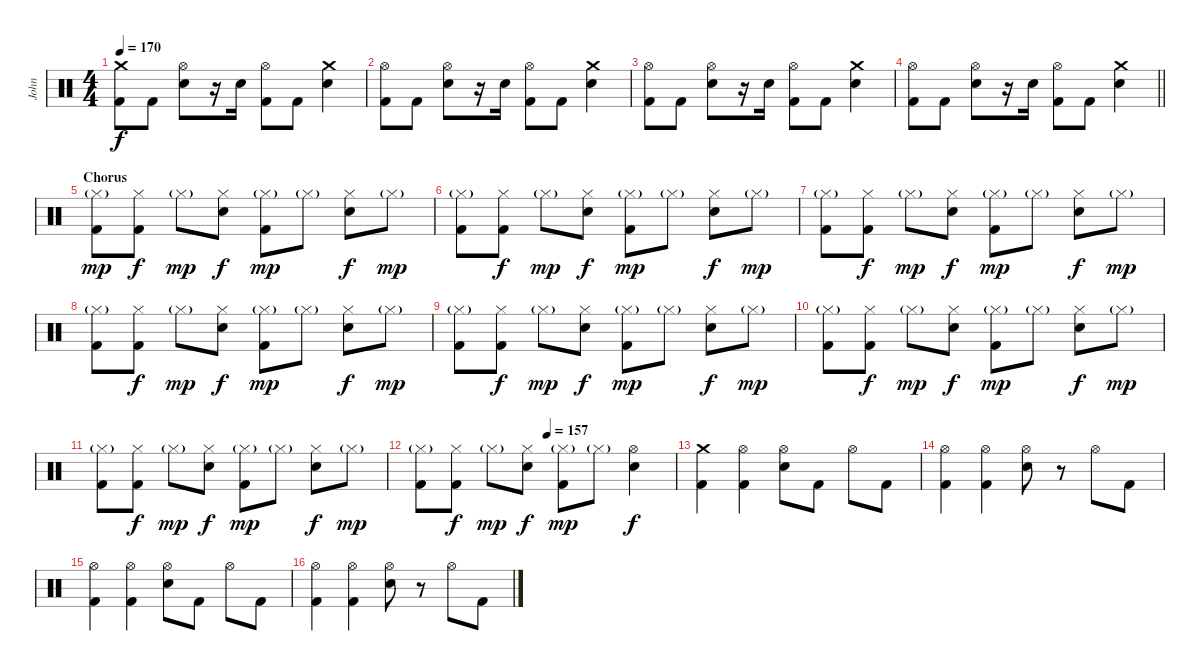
\track ("John" "John") {instrument percussion}
\staff {score}
\articulation defaults
\ts (4 4)
\tempo 170
\clef neutral
\ks c
("Crash medium (hit)" "Kick (hit) 2").8{dy f} "Kick (hit) 2".8 ("Hi-Hat (open)" "Electric Snare (hit)").8 r.16 "Electric Snare (hit)".16 ("Hi-Hat (open)" "Kick (hit) 2").8 "Kick (hit) 2".8 ("Crash medium (hit)" "Electric Snare (hit)").4 |
("Hi-Hat (open)" "Kick (hit) 2").8 "Kick (hit) 2".8 ("Hi-Hat (open)" "Electric Snare (hit)").8 r.16 "Electric Snare (hit)".16 ("Hi-Hat (open)" "Kick (hit) 2").8 "Kick (hit) 2".8 ("Crash medium (hit)" "Electric Snare (hit)").4 |
("Hi-Hat (open)" "Kick (hit) 2").8 "Kick (hit) 2".8 ("Hi-Hat (open)" "Electric Snare (hit)").8 r.16 "Electric Snare (hit)".16 ("Hi-Hat (open)" "Kick (hit) 2").8 "Kick (hit) 2".8 ("Crash medium (hit)" "Electric Snare (hit)").4 |
\barLineRight lightlight
("Hi-Hat (open)" "Kick (hit) 2").8 "Kick (hit) 2".8 ("Hi-Hat (open)" "Electric Snare (hit)").8 r.16 "Electric Snare (hit)".16 ("Hi-Hat (open)" "Kick (hit) 2").8 "Kick (hit) 2".8 ("Crash medium (hit)" "Electric Snare (hit)").4 |
\section ("" "Chorus")
("Hi-Hat (closed)"{g} "Kick (hit) 2").8{dy mp} ("Hi-Hat (closed)" "Kick (hit) 2").8{dy f} "Hi-Hat (closed)"{g}.8{dy mp} ("Hi-Hat (closed)" "Electric Snare (hit)").8{dy f} ("Hi-Hat (closed)"{g} "Kick (hit) 2").8{dy mp} "Hi-Hat (closed)"{g}.8 ("Hi-Hat (closed)" "Electric Snare (hit)").8{dy f} "Hi-Hat (closed)"{g}.8{dy mp} |
("Hi-Hat (closed)"{g} "Kick (hit) 2").8 ("Hi-Hat (closed)" "Kick (hit) 2").8{dy f} "Hi-Hat (closed)"{g}.8{dy mp} ("Hi-Hat (closed)" "Electric Snare (hit)").8{dy f} ("Hi-Hat (closed)"{g} "Kick (hit) 2").8{dy mp} "Hi-Hat (closed)"{g}.8 ("Hi-Hat (closed)" "Electric Snare (hit)").8{dy f} "Hi-Hat (closed)"{g}.8{dy mp} |
("Hi-Hat (closed)"{g} "Kick (hit) 2").8 ("Hi-Hat (closed)" "Kick (hit) 2").8{dy f} "Hi-Hat (closed)"{g}.8{dy mp} ("Hi-Hat (closed)" "Electric Snare (hit)").8{dy f} ("Hi-Hat (closed)"{g} "Kick (hit) 2").8{dy mp} "Hi-Hat (closed)"{g}.8 ("Hi-Hat (closed)" "Electric Snare (hit)").8{dy f} "Hi-Hat (closed)"{g}.8{dy mp} |
("Hi-Hat (closed)"{g} "Kick (hit) 2").8 ("Hi-Hat (closed)" "Kick (hit) 2").8{dy f} "Hi-Hat (closed)"{g}.8{dy mp} ("Hi-Hat (closed)" "Electric Snare (hit)").8{dy f} ("Hi-Hat (closed)"{g} "Kick (hit) 2").8{dy mp} "Hi-Hat (closed)"{g}.8 ("Hi-Hat (closed)" "Electric Snare (hit)").8{dy f} "Hi-Hat (closed)"{g}.8{dy mp} |
("Hi-Hat (closed)"{g} "Kick (hit) 2").8 ("Hi-Hat (closed)" "Kick (hit) 2").8{dy f} "Hi-Hat (closed)"{g}.8{dy mp} ("Hi-Hat (closed)" "Electric Snare (hit)").8{dy f} ("Hi-Hat (closed)"{g} "Kick (hit) 2").8{dy mp} "Hi-Hat (closed)"{g}.8 ("Hi-Hat (closed)" "Electric Snare (hit)").8{dy f} "Hi-Hat (closed)"{g}.8{dy mp} |
("Hi-Hat (closed)"{g} "Kick (hit) 2").8 ("Hi-Hat (closed)" "Kick (hit) 2").8{dy f} "Hi-Hat (closed)"{g}.8{dy mp} ("Hi-Hat (closed)" "Electric Snare (hit)").8{dy f} ("Hi-Hat (closed)"{g} "Kick (hit) 2").8{dy mp} "Hi-Hat (closed)"{g}.8 ("Hi-Hat (closed)" "Electric Snare (hit)").8{dy f} "Hi-Hat (closed)"{g}.8{dy mp} |
("Hi-Hat (closed)"{g} "Kick (hit) 2").8 ("Hi-Hat (closed)" "Kick (hit) 2").8{dy f} "Hi-Hat (closed)"{g}.8{dy mp} ("Hi-Hat (closed)" "Electric Snare (hit)").8{dy f} ("Hi-Hat (closed)"{g} "Kick (hit) 2").8{dy mp} "Hi-Hat (closed)"{g}.8 ("Hi-Hat (closed)" "Electric Snare (hit)").8{dy f} "Hi-Hat (closed)"{g}.8{dy mp} |
\tempo (157 0.5)
("Hi-Hat (closed)"{g} "Kick (hit) 2").8 ("Hi-Hat (closed)" "Kick (hit) 2").8{dy f} "Hi-Hat (closed)"{g}.8{dy mp} ("Hi-Hat (closed)" "Electric Snare (hit)").8{dy f} ("Hi-Hat (closed)"{g} "Kick (hit) 2").8{dy mp} "Hi-Hat (closed)"{g}.8 ("Hi-Hat (open)" "Electric Snare (hit)").4{dy f} |
("Crash medium (hit)" "Kick (hit) 2").4 ("Hi-Hat (open)" "Kick (hit) 2").4 ("Hi-Hat (open)" "Electric Snare (hit)").8 "Kick (hit) 2".8 "Hi-Hat (open)".8 "Kick (hit) 2".8 |
("Hi-Hat (open)" "Kick (hit) 2").4 ("Hi-Hat (open)" "Kick (hit) 2").4 ("Hi-Hat (open)" "Electric Snare (hit)").8 r.8 "Hi-Hat (open)".8 "Kick (hit) 2".8 |
("Hi-Hat (open)" "Kick (hit) 2").4 ("Hi-Hat (open)" "Kick (hit) 2").4 ("Hi-Hat (open)" "Electric Snare (hit)").8 "Kick (hit) 2".8 "Hi-Hat (open)".8 "Kick (hit) 2".8 |
("Hi-Hat (open)" "Kick (hit) 2").4 ("Hi-Hat (open)" "Kick (hit) 2").4 ("Hi-Hat (open)" "Electric Snare (hit)").8 r.8 "Hi-Hat (open)".8 "Kick (hit) 2".8
